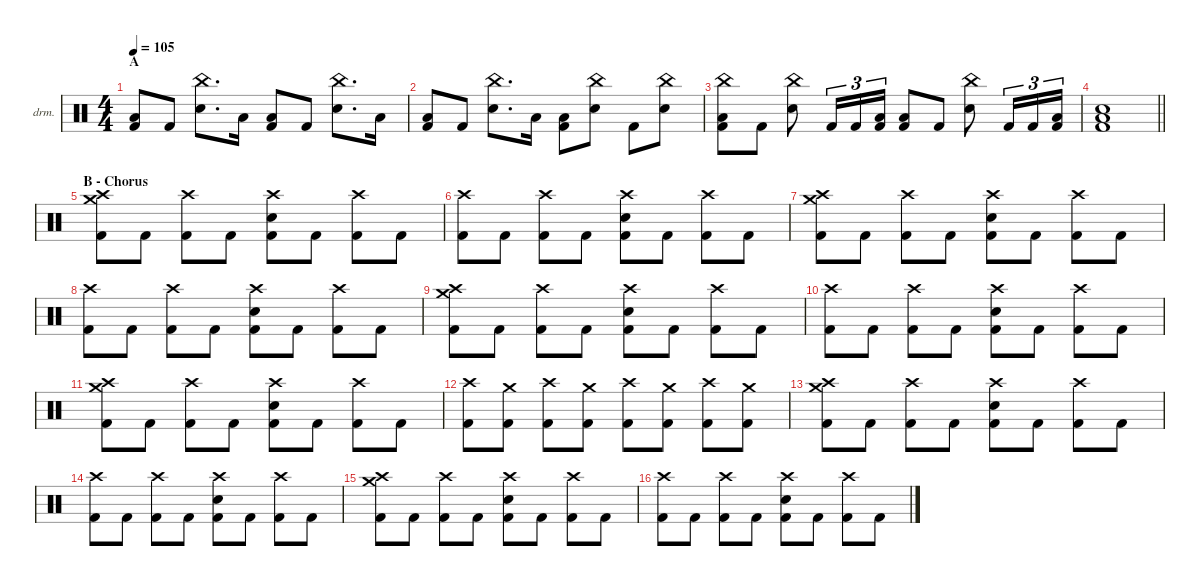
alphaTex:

\defaultSystemsLayout 4
\hideDynamics
\bracketExtendMode nobrackets
\firstSystemTrackNameOrientation horizontal
\otherSystemsTrackNameOrientation horizontal
\track ("Percussions" "drm.") {instrument percussion}
\staff {score}
\articulation defaults
\ts (4 4)
\section ("" "A")
\tempo 105
\clef neutral
\ks c
("Low Tom (hit)" "Kick (hit) 2").8{dy f} "Kick (hit) 2".8 ("China (hit)" "Snare (hit) 2").8{d} "Low Tom (hit)".16 ("Low Tom (hit)" "Kick (hit) 2").8 "Kick (hit) 2".8 ("China (hit)" "Snare (hit) 2").8{d} "Low Tom (hit)".16 |
("Low Tom (hit)" "Kick (hit) 2").8 "Kick (hit) 2".8 ("China (hit)" "Snare (hit) 2").8{d} "Low Tom (hit)".16 ("Low Tom (hit)" "Kick (hit) 2").8 ("China (hit)" "Snare (hit) 2").8 "Kick (hit) 2".8 ("China (hit)" "Snare (hit) 2").8 |
("China (hit)" "Low Tom (hit)" "Kick (hit) 2").8 "Kick (hit) 2".8 ("China (hit)" "Snare (hit) 2").8 "Kick (hit) 2".16{tu (3 2) dy fff} "Kick (hit) 2".16{tu (3 2)} ("Low Tom (hit)" "Kick (hit) 2").16{tu (3 2) dy f} ("Low Tom (hit)" "Kick (hit) 2").8 "Kick (hit) 2".8 ("China (hit)" "Snare (hit) 2").8 "Kick (hit) 2".16{tu (3 2) dy fff} "Kick (hit) 2".16{tu (3 2)} ("Low Tom (hit)" "Kick (hit) 2").16{tu (3 2) dy f} |
\barLineRight lightlight
("Low Tom (hit)" "Snare (hit) 2" "Kick (hit) 2").1{dy fff} |
\section ("" "B - Chorus")
("Crash medium (hit)" "Crash high (hit)" "Kick (hit) 2").8{dy f} "Kick (hit) 2".8 ("Crash high (hit)" "Kick (hit) 2").8 "Kick (hit) 2".8 ("Crash high (hit)" "Snare (hit) 2" "Kick (hit) 2").8 "Kick (hit) 2".8 ("Crash high (hit)" "Kick (hit) 2").8 "Kick (hit) 2".8 |
("Crash high (hit)" "Kick (hit) 2").8 "Kick (hit) 2".8 ("Crash high (hit)" "Kick (hit) 2").8 "Kick (hit) 2".8 ("Crash high (hit)" "Snare (hit) 2" "Kick (hit) 2").8 "Kick (hit) 2".8 ("Crash high (hit)" "Kick (hit) 2").8 "Kick (hit) 2".8 |
("Crash medium (hit)" "Crash high (hit)" "Kick (hit) 2").8 "Kick (hit) 2".8 ("Crash high (hit)" "Kick (hit) 2").8 "Kick (hit) 2".8 ("Crash high (hit)" "Snare (hit) 2" "Kick (hit) 2").8 "Kick (hit) 2".8 ("Crash high (hit)" "Kick (hit) 2").8 "Kick (hit) 2".8 |
("Crash high (hit)" "Kick (hit) 2").8 "Kick (hit) 2".8 ("Crash high (hit)" "Kick (hit) 2").8 "Kick (hit) 2".8 ("Crash high (hit)" "Snare (hit) 2" "Kick (hit) 2").8 "Kick (hit) 2".8 ("Crash high (hit)" "Kick (hit) 2").8 "Kick (hit) 2".8 |
("Crash medium (hit)" "Crash high (hit)" "Kick (hit) 2").8 "Kick (hit) 2".8 ("Crash high (hit)" "Kick (hit) 2").8 "Kick (hit) 2".8 ("Crash high (hit)" "Snare (hit) 2" "Kick (hit) 2").8 "Kick (hit) 2".8 ("Crash high (hit)" "Kick (hit) 2").8 "Kick (hit) 2".8 |
("Crash high (hit)" "Kick (hit) 2").8 "Kick (hit) 2".8 ("Crash high (hit)" "Kick (hit) 2").8 "Kick (hit) 2".8 ("Crash high (hit)" "Snare (hit) 2" "Kick (hit) 2").8 "Kick (hit) 2".8 ("Crash high (hit)" "Kick (hit) 2").8 "Kick (hit) 2".8 |
("Crash medium (hit)" "Crash high (hit)" "Kick (hit) 2").8 "Kick (hit) 2".8 ("Crash high (hit)" "Kick (hit) 2").8 "Kick (hit) 2".8 ("Crash high (hit)" "Snare (hit) 2" "Kick (hit) 2").8 "Kick (hit) 2".8 ("Crash high (hit)" "Kick (hit) 2").8 "Kick (hit) 2".8 |
("Crash high (hit)" "Kick (hit) 2").8 ("Crash medium (hit)" "Kick (hit) 2").8 ("Crash high (hit)" "Kick (hit) 2").8 ("Crash medium (hit)" "Kick (hit) 2").8 ("Crash high (hit)" "Kick (hit) 2").8 ("Crash medium (hit)" "Kick (hit) 2").8 ("Crash high (hit)" "Kick (hit) 2").8 ("Crash medium (hit)" "Kick (hit) 2").8 |
("Crash medium (hit)" "Crash high (hit)" "Kick (hit) 2").8 "Kick (hit) 2".8 ("Crash high (hit)" "Kick (hit) 2").8 "Kick (hit) 2".8 ("Crash high (hit)" "Snare (hit) 2" "Kick (hit) 2").8 "Kick (hit) 2".8 ("Crash high (hit)" "Kick (hit) 2").8 "Kick (hit) 2".8 |
("Crash high (hit)" "Kick (hit) 2").8 "Kick (hit) 2".8 ("Crash high (hit)" "Kick (hit) 2").8 "Kick (hit) 2".8 ("Crash high (hit)" "Snare (hit) 2" "Kick (hit) 2").8 "Kick (hit) 2".8 ("Crash high (hit)" "Kick (hit) 2").8 "Kick (hit) 2".8 |
("Crash medium (hit)" "Crash high (hit)" "Kick (hit) 2").8 "Kick (hit) 2".8 ("Crash high (hit)" "Kick (hit) 2").8 "Kick (hit) 2".8 ("Crash high (hit)" "Snare (hit) 2" "Kick (hit) 2").8 "Kick (hit) 2".8 ("Crash high (hit)" "Kick (hit) 2").8 "Kick (hit) 2".8 |
("Crash high (hit)" "Kick (hit) 2").8 "Kick (hit) 2".8 ("Crash high (hit)" "Kick (hit) 2").8 "Kick (hit) 2".8 ("Crash high (hit)" "Snare (hit) 2" "Kick (hit) 2").8 "Kick (hit) 2".8 ("Crash high (hit)" "Kick (hit) 2").8 "Kick (hit) 2".8
